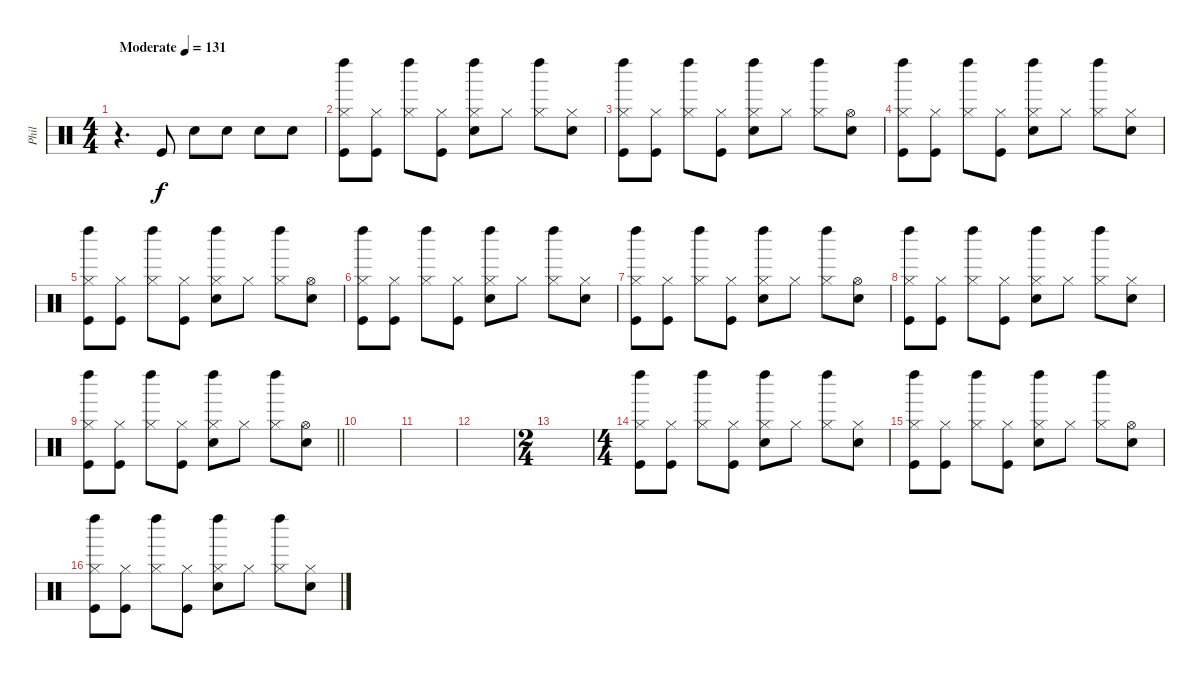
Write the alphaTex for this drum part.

\track ("Phil" "Phil") {instrument percussion}
\staff {score}
\articulation defaults
\ts (4 4)
\tempo (131 "Moderate")
\clef neutral
\ks c
r.4{d dy f volume 3} "Kick (hit)".8{volume 13} "Electric Snare (hit)".8 "Electric Snare (hit)".8 "Electric Snare (hit)".8 "Electric Snare (hit)".8 |
("Left Maraca (hit)" "Hi-Hat (closed)" "Kick (hit)").8 ("Hi-Hat (closed)" "Kick (hit)").8 ("Left Maraca (hit)" "Hi-Hat (closed)").8 ("Hi-Hat (closed)" "Kick (hit)").8 ("Left Maraca (hit)" "Hi-Hat (closed)" "Electric Snare (hit)").8 "Hi-Hat (closed)".8 ("Left Maraca (hit)" "Hi-Hat (closed)").8 ("Hi-Hat (closed)" "Electric Snare (hit)").8 |
("Left Maraca (hit)" "Hi-Hat (closed)" "Kick (hit)").8 ("Hi-Hat (closed)" "Kick (hit)").8 ("Left Maraca (hit)" "Hi-Hat (closed)").8 ("Hi-Hat (closed)" "Kick (hit)").8 ("Left Maraca (hit)" "Hi-Hat (closed)" "Electric Snare (hit)").8 "Hi-Hat (closed)".8 ("Left Maraca (hit)" "Hi-Hat (closed)").8 ("Hi-Hat (open)" "Electric Snare (hit)").8 |
("Left Maraca (hit)" "Hi-Hat (closed)" "Kick (hit)").8 ("Hi-Hat (closed)" "Kick (hit)").8 ("Left Maraca (hit)" "Hi-Hat (closed)").8 ("Hi-Hat (closed)" "Kick (hit)").8 ("Left Maraca (hit)" "Hi-Hat (closed)" "Electric Snare (hit)").8 "Hi-Hat (closed)".8 ("Left Maraca (hit)" "Hi-Hat (closed)").8 ("Hi-Hat (closed)" "Electric Snare (hit)").8 |
("Left Maraca (hit)" "Hi-Hat (closed)" "Kick (hit)").8 ("Hi-Hat (closed)" "Kick (hit)").8 ("Left Maraca (hit)" "Hi-Hat (closed)").8 ("Hi-Hat (closed)" "Kick (hit)").8 ("Left Maraca (hit)" "Hi-Hat (closed)" "Electric Snare (hit)").8 "Hi-Hat (closed)".8 ("Left Maraca (hit)" "Hi-Hat (closed)").8 ("Hi-Hat (open)" "Electric Snare (hit)").8 |
("Left Maraca (hit)" "Hi-Hat (closed)" "Kick (hit)").8 ("Hi-Hat (closed)" "Kick (hit)").8 ("Left Maraca (hit)" "Hi-Hat (closed)").8 ("Hi-Hat (closed)" "Kick (hit)").8 ("Left Maraca (hit)" "Hi-Hat (closed)" "Electric Snare (hit)").8 "Hi-Hat (closed)".8 ("Left Maraca (hit)" "Hi-Hat (closed)").8 ("Hi-Hat (closed)" "Electric Snare (hit)").8 |
("Left Maraca (hit)" "Hi-Hat (closed)" "Kick (hit)").8 ("Hi-Hat (closed)" "Kick (hit)").8 ("Left Maraca (hit)" "Hi-Hat (closed)").8 ("Hi-Hat (closed)" "Kick (hit)").8 ("Left Maraca (hit)" "Hi-Hat (closed)" "Electric Snare (hit)").8 "Hi-Hat (closed)".8 ("Left Maraca (hit)" "Hi-Hat (closed)").8 ("Hi-Hat (open)" "Electric Snare (hit)").8 |
("Left Maraca (hit)" "Hi-Hat (closed)" "Kick (hit)").8 ("Hi-Hat (closed)" "Kick (hit)").8 ("Left Maraca (hit)" "Hi-Hat (closed)").8 ("Hi-Hat (closed)" "Kick (hit)").8 ("Left Maraca (hit)" "Hi-Hat (closed)" "Electric Snare (hit)").8 "Hi-Hat (closed)".8 ("Left Maraca (hit)" "Hi-Hat (closed)").8 ("Hi-Hat (closed)" "Electric Snare (hit)").8 |
\barLineRight lightlight
("Left Maraca (hit)" "Hi-Hat (closed)" "Kick (hit)").8 ("Hi-Hat (closed)" "Kick (hit)").8 ("Left Maraca (hit)" "Hi-Hat (closed)").8 ("Hi-Hat (closed)" "Kick (hit)").8 ("Left Maraca (hit)" "Hi-Hat (closed)" "Electric Snare (hit)").8 "Hi-Hat (closed)".8 ("Left Maraca (hit)" "Hi-Hat (closed)").8 ("Hi-Hat (open)" "Electric Snare (hit)").8 |
|
|
|
\ts (2 4)
|
\ts (4 4)
("Left Maraca (hit)" "Hi-Hat (closed)" "Kick (hit)").8 ("Hi-Hat (closed)" "Kick (hit)").8 ("Left Maraca (hit)" "Hi-Hat (closed)").8 ("Hi-Hat (closed)" "Kick (hit)").8 ("Left Maraca (hit)" "Hi-Hat (closed)" "Electric Snare (hit)").8 "Hi-Hat (closed)".8 ("Left Maraca (hit)" "Hi-Hat (closed)").8 ("Hi-Hat (closed)" "Electric Snare (hit)").8 |
("Left Maraca (hit)" "Hi-Hat (closed)" "Kick (hit)").8 ("Hi-Hat (closed)" "Kick (hit)").8 ("Left Maraca (hit)" "Hi-Hat (closed)").8 ("Hi-Hat (closed)" "Kick (hit)").8 ("Left Maraca (hit)" "Hi-Hat (closed)" "Electric Snare (hit)").8 "Hi-Hat (closed)".8 ("Left Maraca (hit)" "Hi-Hat (closed)").8 ("Hi-Hat (open)" "Electric Snare (hit)").8 |
("Left Maraca (hit)" "Hi-Hat (closed)" "Kick (hit)").8 ("Hi-Hat (closed)" "Kick (hit)").8 ("Left Maraca (hit)" "Hi-Hat (closed)").8 ("Hi-Hat (closed)" "Kick (hit)").8 ("Left Maraca (hit)" "Hi-Hat (closed)" "Electric Snare (hit)").8 "Hi-Hat (closed)".8 ("Left Maraca (hit)" "Hi-Hat (closed)").8 ("Hi-Hat (closed)" "Electric Snare (hit)").8
